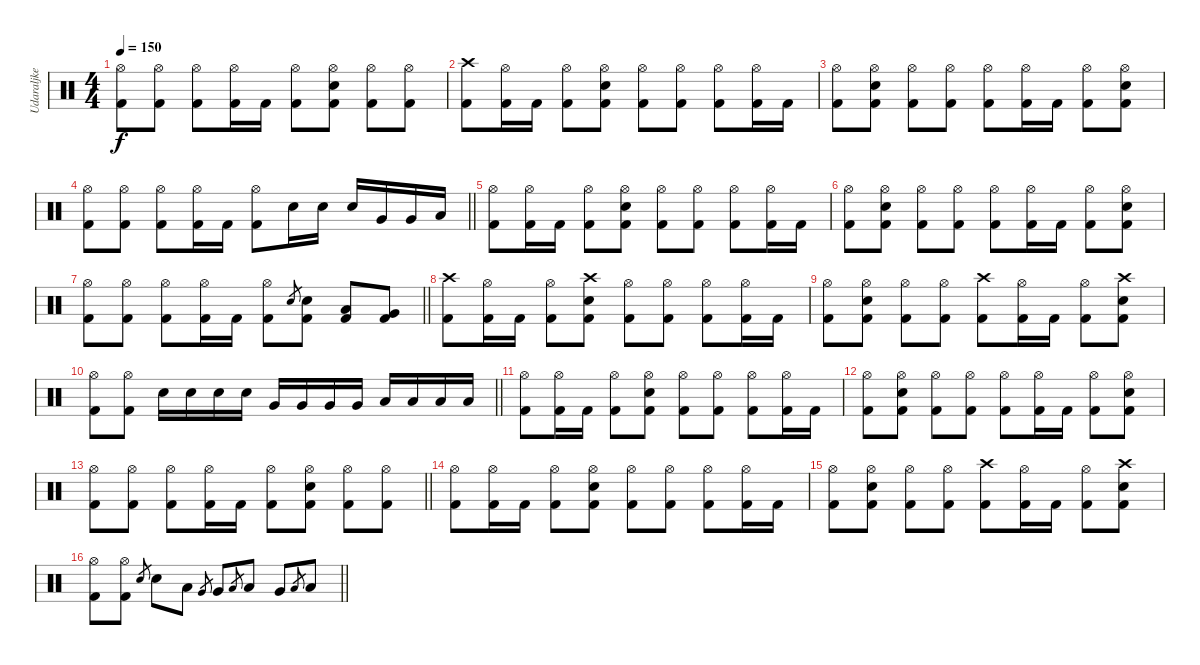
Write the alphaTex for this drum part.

\track ("Udaraljke" "Udaraljke") {instrument percussion}
\staff {score}
\articulation defaults
\ts (4 4)
\tempo 150
\clef neutral
\ks c
("Hi-Hat (open)" "Kick (hit) 2").8{dy f} ("Hi-Hat (open)" "Kick (hit) 2").8 ("Hi-Hat (open)" "Kick (hit) 2").8 ("Hi-Hat (open)" "Kick (hit) 2").16 "Kick (hit) 2".16 ("Hi-Hat (open)" "Kick (hit) 2").8 ("Hi-Hat (open)" "Electric Snare (hit)" "Kick (hit) 2").8 ("Hi-Hat (open)" "Kick (hit) 2").8 ("Hi-Hat (open)" "Kick (hit) 2").8 |
("Crash high (hit)" "Kick (hit) 2").8 ("Hi-Hat (open)" "Kick (hit) 2").16 "Kick (hit) 2".16 ("Hi-Hat (open)" "Kick (hit) 2").8 ("Hi-Hat (open)" "Electric Snare (hit)" "Kick (hit) 2").8 ("Hi-Hat (open)" "Kick (hit) 2").8 ("Hi-Hat (open)" "Kick (hit) 2").8 ("Hi-Hat (open)" "Kick (hit) 2").8 ("Hi-Hat (open)" "Kick (hit) 2").16 "Kick (hit) 2".16 |
("Hi-Hat (open)" "Kick (hit) 2").8 ("Hi-Hat (open)" "Electric Snare (hit)" "Kick (hit) 2").8 ("Hi-Hat (open)" "Kick (hit) 2").8 ("Hi-Hat (open)" "Kick (hit) 2").8 ("Hi-Hat (open)" "Kick (hit) 2").8 ("Hi-Hat (open)" "Kick (hit) 2").16 "Kick (hit) 2".16 ("Hi-Hat (open)" "Kick (hit) 2").8 ("Hi-Hat (open)" "Electric Snare (hit)" "Kick (hit) 2").8 |
\barLineRight lightlight
("Hi-Hat (open)" "Kick (hit) 2").8 ("Hi-Hat (open)" "Kick (hit) 2").8 ("Hi-Hat (open)" "Kick (hit) 2").8 ("Hi-Hat (open)" "Kick (hit) 2").16 "Kick (hit) 2".16 ("Hi-Hat (open)" "Kick (hit) 2").8 "Electric Snare (hit)".16 "Electric Snare (hit)".16 "Electric Snare (hit)".16 "Very Low Tom (hit)".16 "Very Low Tom (hit)".16 "Low Tom (hit)".16 |
\section ("" "")
("Hi-Hat (open)" "Kick (hit) 2").8 ("Hi-Hat (open)" "Kick (hit) 2").16 "Kick (hit) 2".16 ("Hi-Hat (open)" "Kick (hit) 2").8 ("Hi-Hat (open)" "Electric Snare (hit)" "Kick (hit) 2").8 ("Hi-Hat (open)" "Kick (hit) 2").8 ("Hi-Hat (open)" "Kick (hit) 2").8 ("Hi-Hat (open)" "Kick (hit) 2").8 ("Hi-Hat (open)" "Kick (hit) 2").16 "Kick (hit) 2".16 |
("Hi-Hat (open)" "Kick (hit) 2").8 ("Hi-Hat (open)" "Electric Snare (hit)" "Kick (hit) 2").8 ("Hi-Hat (open)" "Kick (hit) 2").8 ("Hi-Hat (open)" "Kick (hit) 2").8 ("Hi-Hat (open)" "Kick (hit) 2").8 ("Hi-Hat (open)" "Kick (hit) 2").16 "Kick (hit) 2".16 ("Hi-Hat (open)" "Kick (hit) 2").8 ("Hi-Hat (open)" "Electric Snare (hit)" "Kick (hit) 2").8 |
\barLineRight lightlight
("Hi-Hat (open)" "Kick (hit) 2").8 ("Hi-Hat (open)" "Kick (hit) 2").8 ("Hi-Hat (open)" "Kick (hit) 2").8 ("Hi-Hat (open)" "Kick (hit) 2").16 "Kick (hit) 2".16 ("Hi-Hat (open)" "Kick (hit) 2").8 "Electric Snare (hit)".8{gr} ("Electric Snare (hit)" "Kick (hit) 2").8 ("Low Floor Tom (hit)" "Kick (hit) 2").8 ("Very Low Tom (hit)" "Kick (hit) 2").8 |
("Crash high (hit)" "Kick (hit) 2").8 ("Hi-Hat (open)" "Kick (hit) 2").16 "Kick (hit) 2".16 ("Hi-Hat (open)" "Kick (hit) 2").8 ("Crash high (hit)" "Electric Snare (hit)" "Kick (hit) 2").8 ("Hi-Hat (open)" "Kick (hit) 2").8 ("Hi-Hat (open)" "Kick (hit) 2").8 ("Hi-Hat (open)" "Kick (hit) 2").8 ("Hi-Hat (open)" "Kick (hit) 2").16 "Kick (hit) 2".16 |
("Hi-Hat (open)" "Kick (hit) 2").8 ("Hi-Hat (open)" "Electric Snare (hit)" "Kick (hit) 2").8 ("Hi-Hat (open)" "Kick (hit) 2").8 ("Hi-Hat (open)" "Kick (hit) 2").8 ("Crash high (hit)" "Kick (hit) 2").8 ("Hi-Hat (open)" "Kick (hit) 2").16 "Kick (hit) 2".16 ("Hi-Hat (open)" "Kick (hit) 2").8 ("Crash high (hit)" "Electric Snare (hit)" "Kick (hit) 2").8 |
\barLineRight lightlight
("Hi-Hat (open)" "Kick (hit) 2").8 ("Hi-Hat (open)" "Kick (hit) 2").8 "Electric Snare (hit)".16 "Electric Snare (hit)".16 "Electric Snare (hit)".16 "Electric Snare (hit)".16 "Very Low Tom (hit)".16 "Very Low Tom (hit)".16 "Very Low Tom (hit)".16 "Very Low Tom (hit)".16 "Low Tom (hit)".16 "Low Tom (hit)".16 "Low Tom (hit)".16 "Low Tom (hit)".16 |
("Hi-Hat (open)" "Kick (hit) 2").8 ("Hi-Hat (open)" "Kick (hit) 2").16 "Kick (hit) 2".16 ("Hi-Hat (open)" "Kick (hit) 2").8 ("Hi-Hat (open)" "Electric Snare (hit)" "Kick (hit) 2").8 ("Hi-Hat (open)" "Kick (hit) 2").8 ("Hi-Hat (open)" "Kick (hit) 2").8 ("Hi-Hat (open)" "Kick (hit) 2").8 ("Hi-Hat (open)" "Kick (hit) 2").16 "Kick (hit) 2".16 |
("Hi-Hat (open)" "Kick (hit) 2").8 ("Hi-Hat (open)" "Electric Snare (hit)" "Kick (hit) 2").8 ("Hi-Hat (open)" "Kick (hit) 2").8 ("Hi-Hat (open)" "Kick (hit) 2").8 ("Hi-Hat (open)" "Kick (hit) 2").8 ("Hi-Hat (open)" "Kick (hit) 2").16 "Kick (hit) 2".16 ("Hi-Hat (open)" "Kick (hit) 2").8 ("Hi-Hat (open)" "Electric Snare (hit)" "Kick (hit) 2").8 |
\barLineRight lightlight
("Hi-Hat (open)" "Kick (hit) 2").8 ("Hi-Hat (open)" "Kick (hit) 2").8 ("Hi-Hat (open)" "Kick (hit) 2").8 ("Hi-Hat (open)" "Kick (hit) 2").16 "Kick (hit) 2".16 ("Hi-Hat (open)" "Kick (hit) 2").8 ("Hi-Hat (open)" "Electric Snare (hit)" "Kick (hit) 2").8 ("Hi-Hat (open)" "Kick (hit) 2").8 ("Hi-Hat (open)" "Kick (hit) 2").8 |
("Hi-Hat (open)" "Kick (hit) 2").8 ("Hi-Hat (open)" "Kick (hit) 2").16 "Kick (hit) 2".16 ("Hi-Hat (open)" "Kick (hit) 2").8 ("Hi-Hat (open)" "Electric Snare (hit)" "Kick (hit) 2").8 ("Hi-Hat (open)" "Kick (hit) 2").8 ("Hi-Hat (open)" "Kick (hit) 2").8 ("Hi-Hat (open)" "Kick (hit) 2").8 ("Hi-Hat (open)" "Kick (hit) 2").16 "Kick (hit) 2".16 |
("Hi-Hat (open)" "Kick (hit) 2").8 ("Hi-Hat (open)" "Electric Snare (hit)" "Kick (hit) 2").8 ("Hi-Hat (open)" "Kick (hit) 2").8 ("Hi-Hat (open)" "Kick (hit) 2").8 ("Crash high (hit)" "Kick (hit) 2").8 ("Hi-Hat (open)" "Kick (hit) 2").16 "Kick (hit) 2".16 ("Hi-Hat (open)" "Kick (hit) 2").8 ("Crash high (hit)" "Electric Snare (hit)" "Kick (hit) 2").8 |
\barLineRight lightlight
("Hi-Hat (open)" "Kick (hit) 2").8 ("Hi-Hat (open)" "Kick (hit) 2").8 "Electric Snare (hit)".8{gr} "Electric Snare (hit)".8 "Low Floor Tom (hit)".8 "Very Low Tom (hit)".8{gr} "Very Low Tom (hit)".8 "Low Floor Tom (hit)".8{gr} "Low Floor Tom (hit)".8 "Very Low Tom (hit)".8 "Low Tom (hit)".8{gr} "Low Tom (hit)".8
